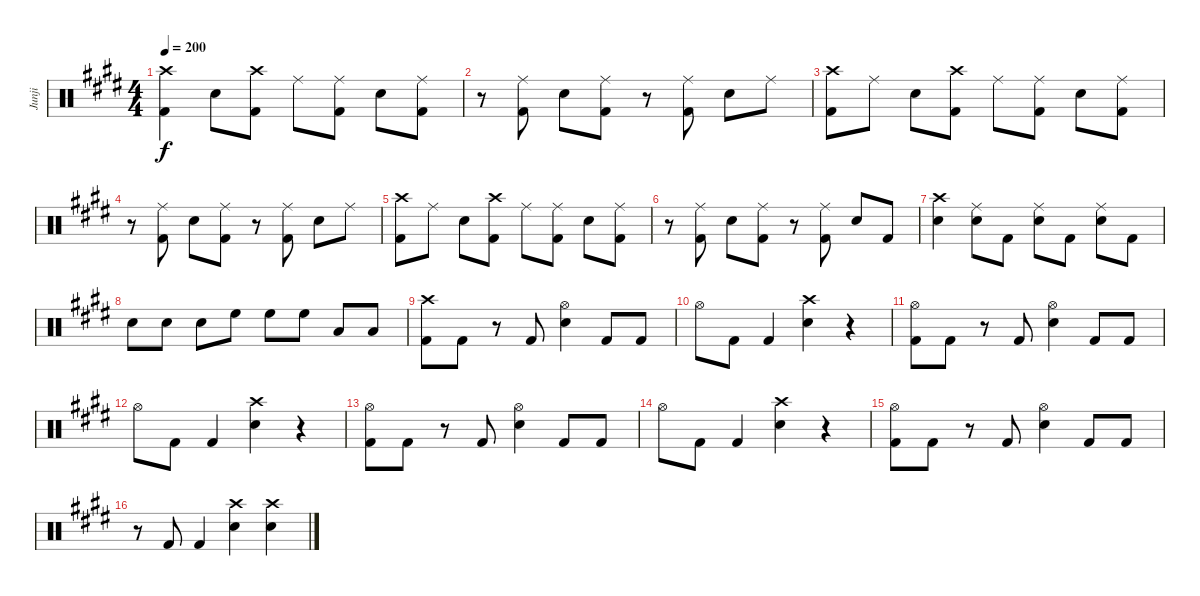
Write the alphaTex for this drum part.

\track ("Junji" "Junji") {instrument percussion}
\staff {score}
\articulation defaults
\ts (4 4)
\tempo 200
\clef neutral
\ks e
("Crash high (hit)" "Kick (hit) 2").4{dy f} "Snare (hit) 2".8 ("Crash high (hit)" "Kick (hit) 2").8 "Ride (middle)".8 ("Ride (middle)" "Kick (hit) 2").8 "Snare (hit) 2".8 ("Ride (middle)" "Kick (hit) 2").8 |
r.8 ("Ride (middle)" "Kick (hit) 2").8 "Snare (hit) 2".8 ("Ride (middle)" "Kick (hit) 2").8 r.8 ("Ride (middle)" "Kick (hit) 2").8 "Snare (hit) 2".8 "Ride (middle)".8 |
("Crash high (hit)" "Kick (hit) 2").8 "Ride (middle)".8 "Snare (hit) 2".8 ("Crash high (hit)" "Kick (hit) 2").8 "Ride (middle)".8 ("Ride (middle)" "Kick (hit) 2").8 "Snare (hit) 2".8 ("Ride (middle)" "Kick (hit) 2").8 |
r.8 ("Ride (middle)" "Kick (hit) 2").8 "Snare (hit) 2".8 ("Ride (middle)" "Kick (hit) 2").8 r.8 ("Ride (middle)" "Kick (hit) 2").8 "Snare (hit) 2".8 "Ride (middle)".8 |
("Crash high (hit)" "Kick (hit) 2").8 "Ride (middle)".8 "Snare (hit) 2".8 ("Crash high (hit)" "Kick (hit) 2").8 "Ride (middle)".8 ("Ride (middle)" "Kick (hit) 2").8 "Snare (hit) 2".8 ("Ride (middle)" "Kick (hit) 2").8 |
r.8 ("Ride (middle)" "Kick (hit) 2").8 "Snare (hit) 2".8 ("Ride (middle)" "Kick (hit) 2").8 r.8 ("Ride (middle)" "Kick (hit) 2").8 "Snare (hit) 2".8 "Kick (hit) 2".8 |
("Crash high (hit)" "Snare (hit) 2").4 ("Ride (middle)" "Snare (hit) 2").8 "Kick (hit) 2".8 ("Ride (middle)" "Snare (hit) 2").8 "Kick (hit) 2".8 ("Ride (middle)" "Snare (hit) 2").8 "Kick (hit) 2".8 |
"Snare (hit) 2".8 "Snare (hit) 2".8 "Snare (hit) 2".8 "High Floor Tom (hit)".8 "High Floor Tom (hit)".8 "High Floor Tom (hit)".8 "Low Tom (hit)".8 "Low Tom (hit)".8 |
("Crash high (hit)" "Kick (hit) 2").8 "Kick (hit) 2".8 r.8 "Kick (hit) 2".8 ("Hi-Hat (open)" "Snare (hit) 2").4 "Kick (hit) 2".8 "Kick (hit) 2".8 |
"Hi-Hat (open)".8 "Kick (hit) 2".8 "Kick (hit) 2".4 ("Crash high (hit)" "Snare (hit) 2").4 r.4 |
("Hi-Hat (open)" "Kick (hit) 2").8 "Kick (hit) 2".8 r.8 "Kick (hit) 2".8 ("Hi-Hat (open)" "Snare (hit) 2").4 "Kick (hit) 2".8 "Kick (hit) 2".8 |
"Hi-Hat (open)".8 "Kick (hit) 2".8 "Kick (hit) 2".4 ("Crash high (hit)" "Snare (hit) 2").4 r.4 |
("Hi-Hat (open)" "Kick (hit) 2").8 "Kick (hit) 2".8 r.8 "Kick (hit) 2".8 ("Hi-Hat (open)" "Snare (hit) 2").4 "Kick (hit) 2".8 "Kick (hit) 2".8 |
"Hi-Hat (open)".8 "Kick (hit) 2".8 "Kick (hit) 2".4 ("Crash high (hit)" "Snare (hit) 2").4 r.4 |
("Hi-Hat (open)" "Kick (hit) 2").8 "Kick (hit) 2".8 r.8 "Kick (hit) 2".8 ("Hi-Hat (open)" "Snare (hit) 2").4 "Kick (hit) 2".8 "Kick (hit) 2".8 |
r.8 "Kick (hit) 2".8 "Kick (hit) 2".4 ("Crash high (hit)" "Snare (hit) 2").4 ("Crash high (hit)" "Snare (hit) 2").4
